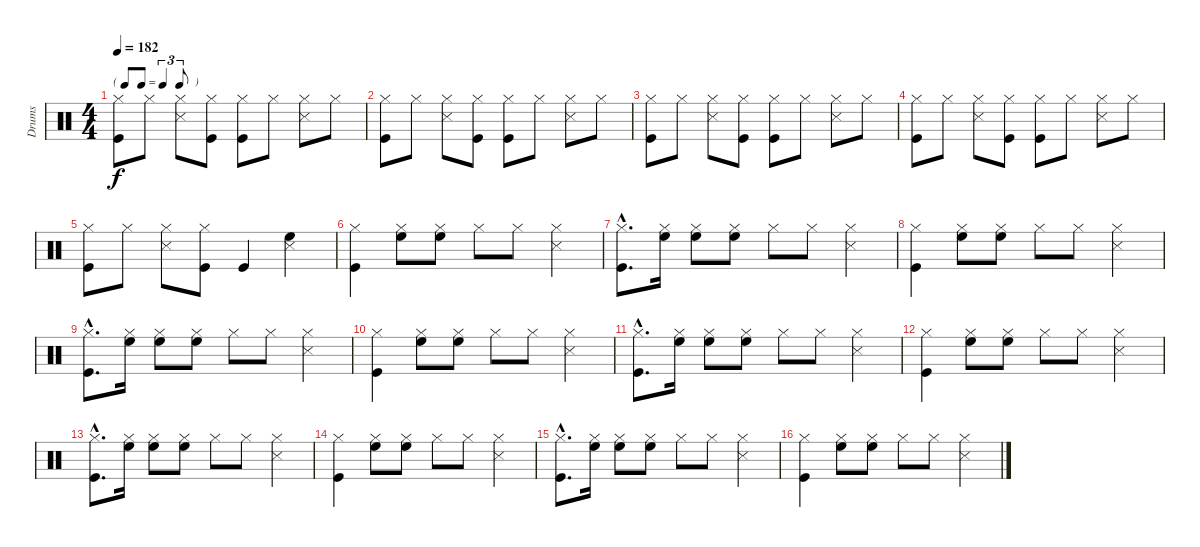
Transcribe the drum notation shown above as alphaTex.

\track ("Drums" "Drums") {instrument percussion}
\staff {score}
\articulation defaults
\ts (4 4)
\tf triplet8th
\tempo 182
\clef neutral
\ks c
("Hi-Hat (closed)" "Kick (hit)").8{dy f} "Hi-Hat (closed)".8 ("Hi-Hat (closed)" "Snare (side stick) 3").8 ("Hi-Hat (closed)" "Kick (hit)").8 ("Hi-Hat (closed)" "Kick (hit)").8 "Hi-Hat (closed)".8 ("Hi-Hat (closed)" "Snare (side stick) 3").8 "Hi-Hat (closed)".8 |
("Hi-Hat (closed)" "Kick (hit)").8 "Hi-Hat (closed)".8 ("Hi-Hat (closed)" "Snare (side stick) 3").8 ("Hi-Hat (closed)" "Kick (hit)").8 ("Hi-Hat (closed)" "Kick (hit)").8 "Hi-Hat (closed)".8 ("Hi-Hat (closed)" "Snare (side stick) 3").8 "Hi-Hat (closed)".8 |
("Hi-Hat (closed)" "Kick (hit)").8 "Hi-Hat (closed)".8 ("Hi-Hat (closed)" "Snare (side stick) 3").8 ("Hi-Hat (closed)" "Kick (hit)").8 ("Hi-Hat (closed)" "Kick (hit)").8 "Hi-Hat (closed)".8 ("Hi-Hat (closed)" "Snare (side stick) 3").8 "Hi-Hat (closed)".8 |
("Hi-Hat (closed)" "Kick (hit)").8 "Hi-Hat (closed)".8 ("Hi-Hat (closed)" "Snare (side stick) 3").8 ("Hi-Hat (closed)" "Kick (hit)").8 ("Hi-Hat (closed)" "Kick (hit)").8 "Hi-Hat (closed)".8 ("Hi-Hat (closed)" "Snare (side stick) 3").8 "Hi-Hat (closed)".8 |
("Hi-Hat (closed)" "Kick (hit)").8 "Hi-Hat (closed)".8 ("Hi-Hat (closed)" "Snare (side stick) 3").8 ("Hi-Hat (closed)" "Kick (hit)").8 "Kick (hit)".4 ("High Floor Tom (hit)" "Snare (side stick) 3").4 |
("Hi-Hat (closed)" "Kick (hit)").4 ("Hi-Hat (closed)" "High Floor Tom (hit)").8 ("Hi-Hat (closed)" "High Floor Tom (hit)").8 "Hi-Hat (closed)".8 "Hi-Hat (closed)".8 ("Hi-Hat (closed)" "Snare (side stick) 3").4 |
("Hi-Hat (closed)"{hac} "Kick (hit)"{hac}).8{d} ("Hi-Hat (closed)" "High Floor Tom (hit)").16 ("Hi-Hat (closed)" "High Floor Tom (hit)").8 ("Hi-Hat (closed)" "High Floor Tom (hit)").8 "Hi-Hat (closed)".8 "Hi-Hat (closed)".8 ("Hi-Hat (closed)" "Snare (side stick) 3").4 |
("Hi-Hat (closed)" "Kick (hit)").4 ("Hi-Hat (closed)" "High Floor Tom (hit)").8 ("Hi-Hat (closed)" "High Floor Tom (hit)").8 "Hi-Hat (closed)".8 "Hi-Hat (closed)".8 ("Hi-Hat (closed)" "Snare (side stick) 3").4 |
("Hi-Hat (closed)"{hac} "Kick (hit)"{hac}).8{d} ("Hi-Hat (closed)" "High Floor Tom (hit)").16 ("Hi-Hat (closed)" "High Floor Tom (hit)").8 ("Hi-Hat (closed)" "High Floor Tom (hit)").8 "Hi-Hat (closed)".8 "Hi-Hat (closed)".8 ("Hi-Hat (closed)" "Snare (side stick) 3").4 |
("Hi-Hat (closed)" "Kick (hit)").4 ("Hi-Hat (closed)" "High Floor Tom (hit)").8 ("Hi-Hat (closed)" "High Floor Tom (hit)").8 "Hi-Hat (closed)".8 "Hi-Hat (closed)".8 ("Hi-Hat (closed)" "Snare (side stick) 3").4 |
("Hi-Hat (closed)"{hac} "Kick (hit)"{hac}).8{d} ("Hi-Hat (closed)" "High Floor Tom (hit)").16 ("Hi-Hat (closed)" "High Floor Tom (hit)").8 ("Hi-Hat (closed)" "High Floor Tom (hit)").8 "Hi-Hat (closed)".8 "Hi-Hat (closed)".8 ("Hi-Hat (closed)" "Snare (side stick) 3").4 |
("Hi-Hat (closed)" "Kick (hit)").4 ("Hi-Hat (closed)" "High Floor Tom (hit)").8 ("Hi-Hat (closed)" "High Floor Tom (hit)").8 "Hi-Hat (closed)".8 "Hi-Hat (closed)".8 ("Hi-Hat (closed)" "Snare (side stick) 3").4 |
("Hi-Hat (closed)"{hac} "Kick (hit)"{hac}).8{d} ("Hi-Hat (closed)" "High Floor Tom (hit)").16 ("Hi-Hat (closed)" "High Floor Tom (hit)").8 ("Hi-Hat (closed)" "High Floor Tom (hit)").8 "Hi-Hat (closed)".8 "Hi-Hat (closed)".8 ("Hi-Hat (closed)" "Snare (side stick) 3").4 |
("Hi-Hat (closed)" "Kick (hit)").4 ("Hi-Hat (closed)" "High Floor Tom (hit)").8 ("Hi-Hat (closed)" "High Floor Tom (hit)").8 "Hi-Hat (closed)".8 "Hi-Hat (closed)".8 ("Hi-Hat (closed)" "Snare (side stick) 3").4 |
("Hi-Hat (closed)"{hac} "Kick (hit)"{hac}).8{d} ("Hi-Hat (closed)" "High Floor Tom (hit)").16 ("Hi-Hat (closed)" "High Floor Tom (hit)").8 ("Hi-Hat (closed)" "High Floor Tom (hit)").8 "Hi-Hat (closed)".8 "Hi-Hat (closed)".8 ("Hi-Hat (closed)" "Snare (side stick) 3").4 |
("Hi-Hat (closed)" "Kick (hit)").4 ("Hi-Hat (closed)" "High Floor Tom (hit)").8 ("Hi-Hat (closed)" "High Floor Tom (hit)").8 "Hi-Hat (closed)".8 "Hi-Hat (closed)".8 ("Hi-Hat (closed)" "Snare (side stick) 3").4
